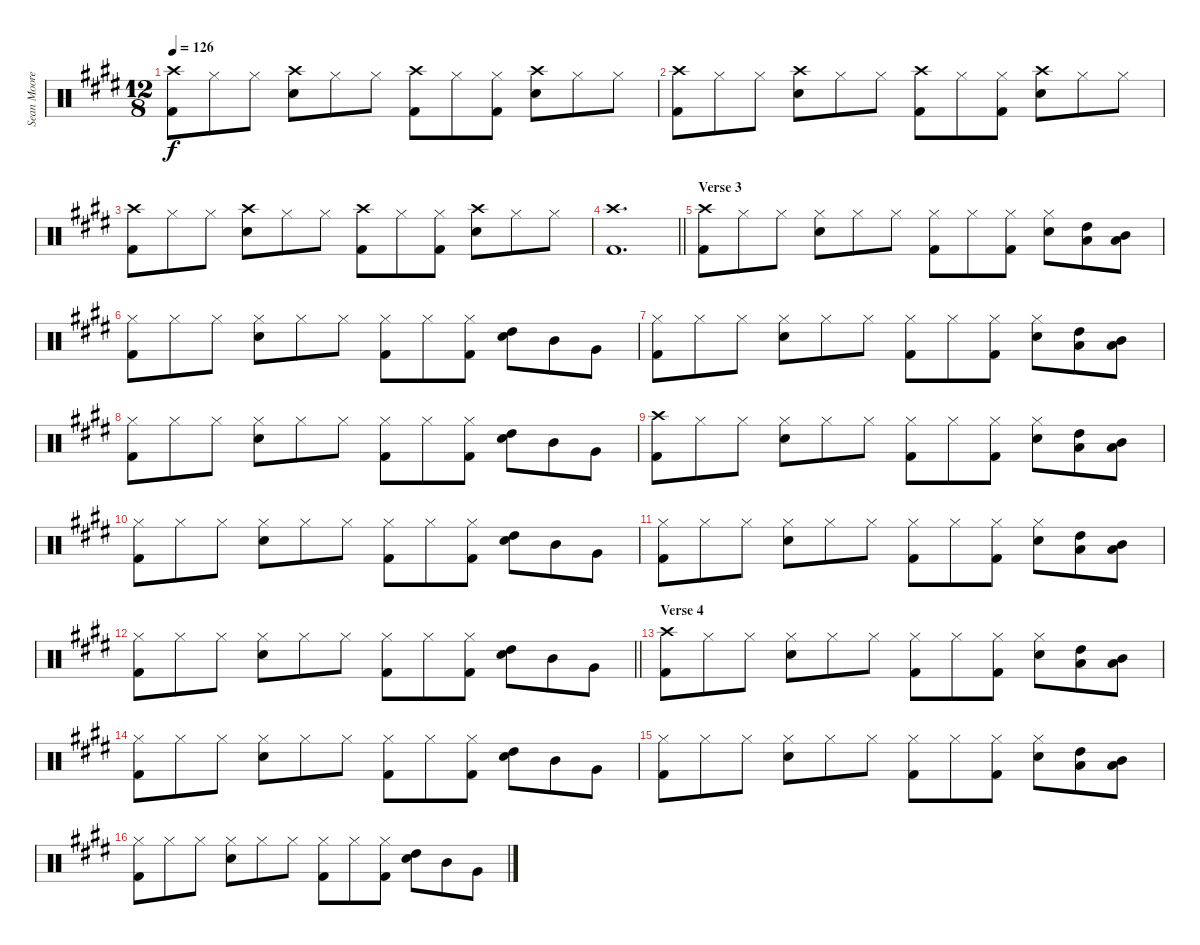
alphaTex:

\track ("Sean Moore (Drums)" "Sean Moore") {instrument percussion}
\staff {score}
\articulation defaults
\ts (12 8)
\tempo 126
\clef neutral
\ks e
("Crash high (hit)" "Kick (hit) 2").8{dy f} "Hi-Hat (closed)".8 "Hi-Hat (closed)".8 ("Crash high (hit)" "Electric Snare (hit)").8 "Hi-Hat (closed)".8 "Hi-Hat (closed)".8 ("Crash high (hit)" "Kick (hit) 2").8 "Hi-Hat (closed)".8 ("Hi-Hat (closed)" "Kick (hit) 2").8 ("Crash high (hit)" "Electric Snare (hit)").8 "Hi-Hat (closed)".8 "Hi-Hat (closed)".8 |
("Crash high (hit)" "Kick (hit) 2").8 "Hi-Hat (closed)".8 "Hi-Hat (closed)".8 ("Crash high (hit)" "Electric Snare (hit)").8 "Hi-Hat (closed)".8 "Hi-Hat (closed)".8 ("Crash high (hit)" "Kick (hit) 2").8 "Hi-Hat (closed)".8 ("Hi-Hat (closed)" "Kick (hit) 2").8 ("Crash high (hit)" "Electric Snare (hit)").8 "Hi-Hat (closed)".8 "Hi-Hat (closed)".8 |
("Crash high (hit)" "Kick (hit) 2").8 "Hi-Hat (closed)".8 "Hi-Hat (closed)".8 ("Crash high (hit)" "Electric Snare (hit)").8 "Hi-Hat (closed)".8 "Hi-Hat (closed)".8 ("Crash high (hit)" "Kick (hit) 2").8 "Hi-Hat (closed)".8 ("Hi-Hat (closed)" "Kick (hit) 2").8 ("Crash high (hit)" "Electric Snare (hit)").8 "Hi-Hat (closed)".8 "Hi-Hat (closed)".8 |
\barLineRight lightlight
("Crash high (hit)" "Kick (hit) 2").1{d} |
\section ("" "Verse 3")
("Crash high (hit)" "Kick (hit) 2").8 "Hi-Hat (closed)".8 "Hi-Hat (closed)".8 ("Hi-Hat (closed)" "Electric Snare (hit)").8 "Hi-Hat (closed)".8 "Hi-Hat (closed)".8 ("Hi-Hat (closed)" "Kick (hit) 2").8 "Hi-Hat (closed)".8 ("Hi-Hat (closed)" "Kick (hit) 2").8 ("Hi-Hat (closed)" "Electric Snare (hit)").8 ("High Tom (hit)" "Low Floor Tom (hit)").8 ("Mid Tom (hit)" "Low Floor Tom (hit)").8 |
("Hi-Hat (closed)" "Kick (hit) 2").8 "Hi-Hat (closed)".8 "Hi-Hat (closed)".8 ("Hi-Hat (closed)" "Electric Snare (hit)").8 "Hi-Hat (closed)".8 "Hi-Hat (closed)".8 ("Hi-Hat (closed)" "Kick (hit) 2").8 "Hi-Hat (closed)".8 ("Hi-Hat (closed)" "Kick (hit) 2").8 ("Electric Snare (hit)" "High Tom (hit)").8 "Mid Tom (hit)".8 "Very Low Tom (hit)".8 |
("Hi-Hat (closed)" "Kick (hit) 2").8 "Hi-Hat (closed)".8 "Hi-Hat (closed)".8 ("Hi-Hat (closed)" "Electric Snare (hit)").8 "Hi-Hat (closed)".8 "Hi-Hat (closed)".8 ("Hi-Hat (closed)" "Kick (hit) 2").8 "Hi-Hat (closed)".8 ("Hi-Hat (closed)" "Kick (hit) 2").8 ("Hi-Hat (closed)" "Electric Snare (hit)").8 ("High Tom (hit)" "Low Floor Tom (hit)").8 ("Mid Tom (hit)" "Low Floor Tom (hit)").8 |
("Hi-Hat (closed)" "Kick (hit) 2").8 "Hi-Hat (closed)".8 "Hi-Hat (closed)".8 ("Hi-Hat (closed)" "Electric Snare (hit)").8 "Hi-Hat (closed)".8 "Hi-Hat (closed)".8 ("Hi-Hat (closed)" "Kick (hit) 2").8 "Hi-Hat (closed)".8 ("Hi-Hat (closed)" "Kick (hit) 2").8 ("Electric Snare (hit)" "High Tom (hit)").8 "Mid Tom (hit)".8 "Very Low Tom (hit)".8 |
("Crash high (hit)" "Kick (hit) 2").8 "Hi-Hat (closed)".8 "Hi-Hat (closed)".8 ("Hi-Hat (closed)" "Electric Snare (hit)").8 "Hi-Hat (closed)".8 "Hi-Hat (closed)".8 ("Hi-Hat (closed)" "Kick (hit) 2").8 "Hi-Hat (closed)".8 ("Hi-Hat (closed)" "Kick (hit) 2").8 ("Hi-Hat (closed)" "Electric Snare (hit)").8 ("High Tom (hit)" "Low Floor Tom (hit)").8 ("Mid Tom (hit)" "Low Floor Tom (hit)").8 |
("Hi-Hat (closed)" "Kick (hit) 2").8 "Hi-Hat (closed)".8 "Hi-Hat (closed)".8 ("Hi-Hat (closed)" "Electric Snare (hit)").8 "Hi-Hat (closed)".8 "Hi-Hat (closed)".8 ("Hi-Hat (closed)" "Kick (hit) 2").8 "Hi-Hat (closed)".8 ("Hi-Hat (closed)" "Kick (hit) 2").8 ("Electric Snare (hit)" "High Tom (hit)").8 "Mid Tom (hit)".8 "Very Low Tom (hit)".8 |
("Hi-Hat (closed)" "Kick (hit) 2").8 "Hi-Hat (closed)".8 "Hi-Hat (closed)".8 ("Hi-Hat (closed)" "Electric Snare (hit)").8 "Hi-Hat (closed)".8 "Hi-Hat (closed)".8 ("Hi-Hat (closed)" "Kick (hit) 2").8 "Hi-Hat (closed)".8 ("Hi-Hat (closed)" "Kick (hit) 2").8 ("Hi-Hat (closed)" "Electric Snare (hit)").8 ("High Tom (hit)" "Low Floor Tom (hit)").8 ("Mid Tom (hit)" "Low Floor Tom (hit)").8 |
\barLineRight lightlight
("Hi-Hat (closed)" "Kick (hit) 2").8 "Hi-Hat (closed)".8 "Hi-Hat (closed)".8 ("Hi-Hat (closed)" "Electric Snare (hit)").8 "Hi-Hat (closed)".8 "Hi-Hat (closed)".8 ("Hi-Hat (closed)" "Kick (hit) 2").8 "Hi-Hat (closed)".8 ("Hi-Hat (closed)" "Kick (hit) 2").8 ("Electric Snare (hit)" "High Tom (hit)").8 "Mid Tom (hit)".8 "Very Low Tom (hit)".8 |
\section ("" "Verse 4")
("Crash high (hit)" "Kick (hit) 2").8 "Hi-Hat (closed)".8 "Hi-Hat (closed)".8 ("Hi-Hat (closed)" "Electric Snare (hit)").8 "Hi-Hat (closed)".8 "Hi-Hat (closed)".8 ("Hi-Hat (closed)" "Kick (hit) 2").8 "Hi-Hat (closed)".8 ("Hi-Hat (closed)" "Kick (hit) 2").8 ("Hi-Hat (closed)" "Electric Snare (hit)").8 ("High Tom (hit)" "Low Floor Tom (hit)").8 ("Mid Tom (hit)" "Low Floor Tom (hit)").8 |
("Hi-Hat (closed)" "Kick (hit) 2").8 "Hi-Hat (closed)".8 "Hi-Hat (closed)".8 ("Hi-Hat (closed)" "Electric Snare (hit)").8 "Hi-Hat (closed)".8 "Hi-Hat (closed)".8 ("Hi-Hat (closed)" "Kick (hit) 2").8 "Hi-Hat (closed)".8 ("Hi-Hat (closed)" "Kick (hit) 2").8 ("Electric Snare (hit)" "High Tom (hit)").8 "Mid Tom (hit)".8 "Very Low Tom (hit)".8 |
("Hi-Hat (closed)" "Kick (hit) 2").8 "Hi-Hat (closed)".8 "Hi-Hat (closed)".8 ("Hi-Hat (closed)" "Electric Snare (hit)").8 "Hi-Hat (closed)".8 "Hi-Hat (closed)".8 ("Hi-Hat (closed)" "Kick (hit) 2").8 "Hi-Hat (closed)".8 ("Hi-Hat (closed)" "Kick (hit) 2").8 ("Hi-Hat (closed)" "Electric Snare (hit)").8 ("High Tom (hit)" "Low Floor Tom (hit)").8 ("Mid Tom (hit)" "Low Floor Tom (hit)").8 |
("Hi-Hat (closed)" "Kick (hit) 2").8 "Hi-Hat (closed)".8 "Hi-Hat (closed)".8 ("Hi-Hat (closed)" "Electric Snare (hit)").8 "Hi-Hat (closed)".8 "Hi-Hat (closed)".8 ("Hi-Hat (closed)" "Kick (hit) 2").8 "Hi-Hat (closed)".8 ("Hi-Hat (closed)" "Kick (hit) 2").8 ("Electric Snare (hit)" "High Tom (hit)").8 "Mid Tom (hit)".8 "Very Low Tom (hit)".8
